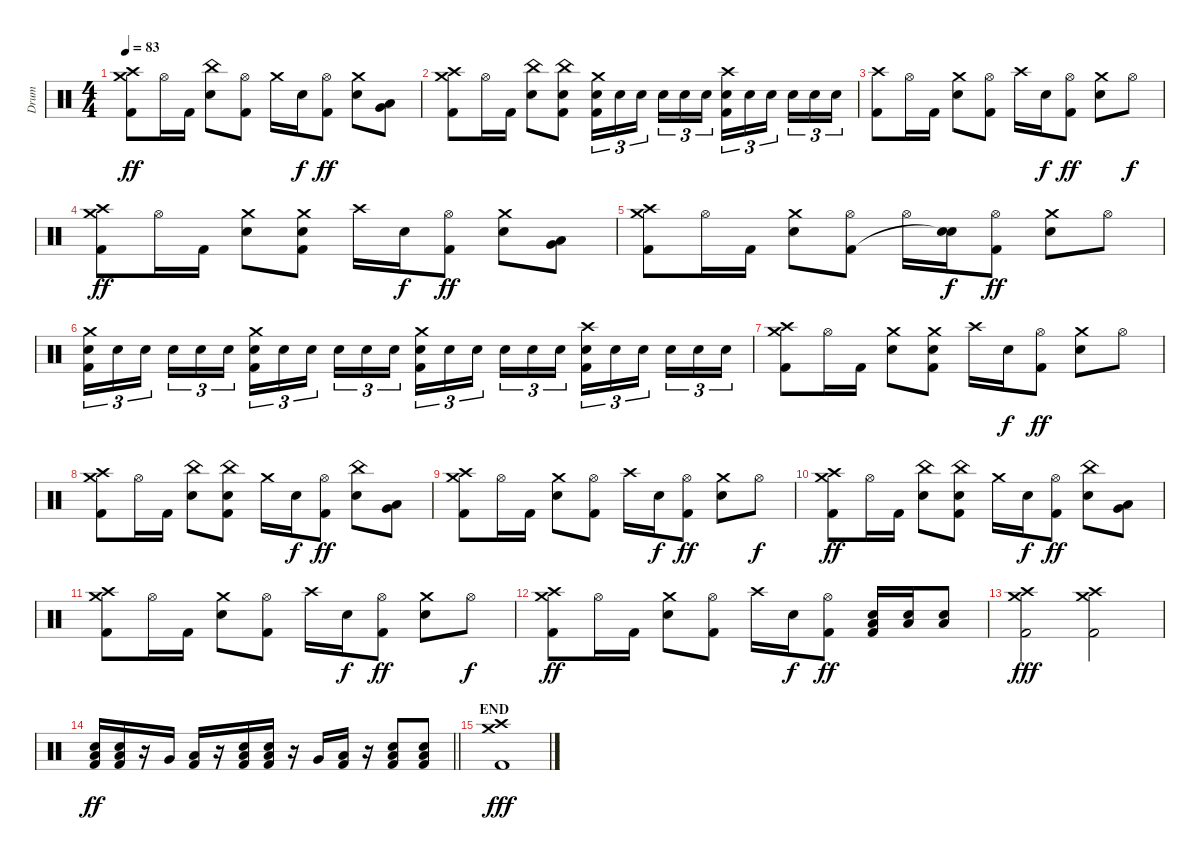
\track ("Drum" "Drum") {instrument percussion}
\staff {score}
\articulation defaults
\ts (4 4)
\tempo 83
\clef neutral
\ks c
("Crash high (hit)" "Crash medium (hit)" "Kick (hit) 2").8{dy ff} "Hi-Hat (open)".16 "Kick (hit) 2".16 ("China (hit)" "Electric Snare (hit)").8 ("Hi-Hat (open)" "Kick (hit) 2").8 "Crash medium (hit)".16 "Electric Snare (hit)".16{dy f} ("Hi-Hat (open)" "Kick (hit) 2").8{dy ff} ("Crash medium (hit)" "Electric Snare (hit)").8 ("Very Low Tom (hit)" "Low Floor Tom (hit)").8 |
("Crash high (hit)" "Crash medium (hit)" "Kick (hit) 2").8 "Hi-Hat (open)".16 "Kick (hit) 2".16 ("China (hit)" "Electric Snare (hit)").8 ("China (hit)" "Electric Snare (hit)" "Kick (hit) 2").8 ("Crash medium (hit)" "Electric Snare (hit)" "Kick (hit) 2").16{tu (3 2)} "Electric Snare (hit)".16{tu (3 2)} "Electric Snare (hit)".16{tu (3 2) beam splitsecondary} "Electric Snare (hit)".16{tu (3 2)} "Electric Snare (hit)".16{tu (3 2)} "Electric Snare (hit)".16{tu (3 2)} ("Crash high (hit)" "Electric Snare (hit)" "Kick (hit) 2").16{tu (3 2)} "Electric Snare (hit)".16{tu (3 2)} "Electric Snare (hit)".16{tu (3 2) beam splitsecondary} "Electric Snare (hit)".16{tu (3 2)} "Electric Snare (hit)".16{tu (3 2)} "Electric Snare (hit)".16{tu (3 2)} |
("Crash high (hit)" "Kick (hit) 2").8 "Hi-Hat (open)".16 "Kick (hit) 2".16 ("Crash medium (hit)" "Electric Snare (hit)").8 ("Hi-Hat (open)" "Kick (hit) 2").8 "Crash high (hit)".16 "Electric Snare (hit)".16{dy f} ("Hi-Hat (open)" "Kick (hit) 2").8{dy ff} ("Crash medium (hit)" "Electric Snare (hit)").8 "Hi-Hat (open)".8{dy f} |
("Crash high (hit)" "Crash medium (hit)" "Kick (hit) 2").8{dy ff} "Hi-Hat (open)".16 "Kick (hit) 2".16 ("Crash medium (hit)" "Electric Snare (hit)").8 ("Crash medium (hit)" "Electric Snare (hit)" "Kick (hit) 2").8 "Crash high (hit)".16 "Electric Snare (hit)".16{dy f} ("Hi-Hat (open)" "Kick (hit) 2").8{dy ff} ("Crash medium (hit)" "Electric Snare (hit)").8 ("Very Low Tom (hit)" "Low Floor Tom (hit)").8 |
("Crash high (hit)" "Crash medium (hit)" "Kick (hit) 2").8 "Hi-Hat (open)".16 "Kick (hit) 2".16 ("Crash medium (hit)" "Electric Snare (hit)").8 ("Hi-Hat (open)" "Kick (hit) 2").8 "Hi-Hat (open)".16 ("Electric Snare (hit)" "Snare (hit)"{t}).16{dy f} ("Hi-Hat (open)" "Kick (hit) 2").8{dy ff} ("Crash medium (hit)" "Electric Snare (hit)").8 "Hi-Hat (open)".8 |
("Crash medium (hit)" "Electric Snare (hit)" "Kick (hit) 2").16{tu (3 2)} "Electric Snare (hit)".16{tu (3 2)} "Electric Snare (hit)".16{tu (3 2) beam splitsecondary} "Electric Snare (hit)".16{tu (3 2)} "Electric Snare (hit)".16{tu (3 2)} "Electric Snare (hit)".16{tu (3 2)} ("Crash medium (hit)" "Electric Snare (hit)" "Kick (hit) 2").16{tu (3 2)} "Electric Snare (hit)".16{tu (3 2)} "Electric Snare (hit)".16{tu (3 2) beam splitsecondary} "Electric Snare (hit)".16{tu (3 2)} "Electric Snare (hit)".16{tu (3 2)} "Electric Snare (hit)".16{tu (3 2)} ("Crash medium (hit)" "Electric Snare (hit)" "Kick (hit) 2").16{tu (3 2)} "Electric Snare (hit)".16{tu (3 2)} "Electric Snare (hit)".16{tu (3 2) beam splitsecondary} "Electric Snare (hit)".16{tu (3 2)} "Electric Snare (hit)".16{tu (3 2)} "Electric Snare (hit)".16{tu (3 2)} ("Crash high (hit)" "Electric Snare (hit)" "Kick (hit) 2").16{tu (3 2)} "Electric Snare (hit)".16{tu (3 2)} "Electric Snare (hit)".16{tu (3 2) beam splitsecondary} "Electric Snare (hit)".16{tu (3 2)} "Electric Snare (hit)".16{tu (3 2)} "Electric Snare (hit)".16{tu (3 2)} |
("Crash high (hit)" "Crash medium (hit)" "Kick (hit) 2").8 "Hi-Hat (open)".16 "Kick (hit) 2".16 ("Crash medium (hit)" "Electric Snare (hit)").8 ("Crash medium (hit)" "Electric Snare (hit)" "Kick (hit) 2").8 "Crash high (hit)".16 "Electric Snare (hit)".16{dy f} ("Hi-Hat (open)" "Kick (hit) 2").8{dy ff} ("Crash medium (hit)" "Electric Snare (hit)").8 "Hi-Hat (open)".8 |
("Crash high (hit)" "Crash medium (hit)" "Kick (hit) 2").8 "Hi-Hat (open)".16 "Kick (hit) 2".16 ("China (hit)" "Electric Snare (hit)").8 ("China (hit)" "Electric Snare (hit)" "Kick (hit) 2").8 "Crash medium (hit)".16 "Electric Snare (hit)".16{dy f} ("Hi-Hat (open)" "Kick (hit) 2").8{dy ff} ("China (hit)" "Electric Snare (hit)").8 ("Very Low Tom (hit)" "Low Floor Tom (hit)").8 |
("Crash high (hit)" "Crash medium (hit)" "Kick (hit) 2").8 "Hi-Hat (open)".16 "Kick (hit) 2".16 ("Crash medium (hit)" "Electric Snare (hit)").8 ("Hi-Hat (open)" "Kick (hit) 2").8 "Crash high (hit)".16 "Electric Snare (hit)".16{dy f} ("Hi-Hat (open)" "Kick (hit) 2").8{dy ff} ("Crash medium (hit)" "Electric Snare (hit)").8 "Hi-Hat (open)".8{dy f} |
("Crash high (hit)" "Crash medium (hit)" "Kick (hit) 2").8{dy ff} "Hi-Hat (open)".16 "Kick (hit) 2".16 ("China (hit)" "Electric Snare (hit)").8 ("China (hit)" "Electric Snare (hit)" "Kick (hit) 2").8 "Crash medium (hit)".16 "Electric Snare (hit)".16{dy f} ("Hi-Hat (open)" "Kick (hit) 2").8{dy ff} ("China (hit)" "Electric Snare (hit)").8 ("Very Low Tom (hit)" "Low Floor Tom (hit)").8 |
("Crash high (hit)" "Crash medium (hit)" "Kick (hit) 2").8 "Hi-Hat (open)".16 "Kick (hit) 2".16 ("Crash medium (hit)" "Electric Snare (hit)").8 ("Hi-Hat (open)" "Kick (hit) 2").8 "Crash high (hit)".16 "Electric Snare (hit)".16{dy f} ("Hi-Hat (open)" "Kick (hit) 2").8{dy ff} ("Crash medium (hit)" "Electric Snare (hit)").8 "Hi-Hat (open)".8{dy f} |
("Crash high (hit)" "Crash medium (hit)" "Kick (hit) 2").8{dy ff} "Hi-Hat (open)".16 "Kick (hit) 2".16 ("Crash medium (hit)" "Electric Snare (hit)").8 ("Hi-Hat (open)" "Kick (hit) 2").8 "Crash high (hit)".16 "Electric Snare (hit)".16{dy f} ("Hi-Hat (open)" "Kick (hit) 2").8{dy ff} ("Electric Snare (hit)" "Low Floor Tom (hit)" "Kick (hit) 2").16 ("Electric Snare (hit)" "Low Floor Tom (hit)").16 ("Electric Snare (hit)" "Low Floor Tom (hit)").8 |
("Crash medium (hit)" "Crash high (hit)" "Kick (hit) 2").2{dy fff} ("Crash medium (hit)" "Crash high (hit)" "Kick (hit) 2").2 |
\barLineRight lightlight
("Low Floor Tom (hit)" "Electric Snare (hit)" "Kick (hit) 2").16{dy ff} ("Low Floor Tom (hit)" "Electric Snare (hit)" "Kick (hit) 2").16 r.16 "Very Low Tom (hit)".16 ("Low Floor Tom (hit)" "Kick (hit) 2").16 r.16 ("Low Floor Tom (hit)" "Electric Snare (hit)" "Kick (hit) 2").16 ("Low Floor Tom (hit)" "Electric Snare (hit)" "Kick (hit) 2").16 r.16 "Very Low Tom (hit)".16 ("Low Floor Tom (hit)" "Kick (hit) 2").16 r.16 ("Low Floor Tom (hit)" "Electric Snare (hit)" "Kick (hit) 2").8 ("Low Floor Tom (hit)" "Electric Snare (hit)" "Kick (hit) 2").8 |
\section ("" "END")
("Crash medium (hit)" "Crash high (hit)" "Kick (hit) 2").1{dy fff}
